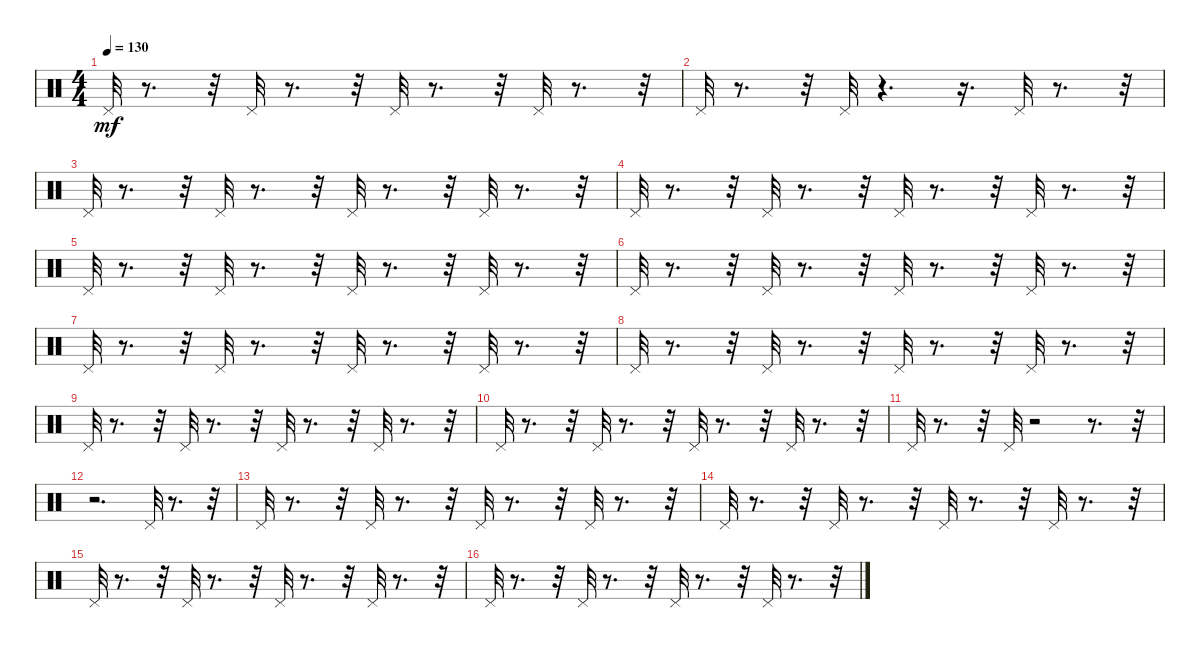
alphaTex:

\track "" {instrument percussion}
\staff {score}
\articulation defaults
\ts (4 4)
\tempo 130
\clef neutral
\ks c "Pedal Hi-Hat (hit)".32{dy mf}
r.8{d} r.32 "Pedal Hi-Hat (hit)".32 r.8{d} r.32 "Pedal Hi-Hat (hit)".32 r.8{d} r.32 "Pedal Hi-Hat (hit)".32 r.8{d} r.32 |
"Pedal Hi-Hat (hit)".32 r.8{d} r.32 "Pedal Hi-Hat (hit)".32 r.4{d} r.16{d} "Pedal Hi-Hat (hit)".32 r.8{d} r.32 |
"Pedal Hi-Hat (hit)".32 r.8{d} r.32 "Pedal Hi-Hat (hit)".32 r.8{d} r.32 "Pedal Hi-Hat (hit)".32 r.8{d} r.32 "Pedal Hi-Hat (hit)".32 r.8{d} r.32 |
"Pedal Hi-Hat (hit)".32 r.8{d} r.32 "Pedal Hi-Hat (hit)".32 r.8{d} r.32 "Pedal Hi-Hat (hit)".32 r.8{d} r.32 "Pedal Hi-Hat (hit)".32 r.8{d} r.32 |
"Pedal Hi-Hat (hit)".32 r.8{d} r.32 "Pedal Hi-Hat (hit)".32 r.8{d} r.32 "Pedal Hi-Hat (hit)".32 r.8{d} r.32 "Pedal Hi-Hat (hit)".32 r.8{d} r.32 |
"Pedal Hi-Hat (hit)".32 r.8{d} r.32 "Pedal Hi-Hat (hit)".32 r.8{d} r.32 "Pedal Hi-Hat (hit)".32 r.8{d} r.32 "Pedal Hi-Hat (hit)".32 r.8{d} r.32 |
"Pedal Hi-Hat (hit)".32 r.8{d} r.32 "Pedal Hi-Hat (hit)".32 r.8{d} r.32 "Pedal Hi-Hat (hit)".32 r.8{d} r.32 "Pedal Hi-Hat (hit)".32 r.8{d} r.32 |
"Pedal Hi-Hat (hit)".32 r.8{d} r.32 "Pedal Hi-Hat (hit)".32 r.8{d} r.32 "Pedal Hi-Hat (hit)".32 r.8{d} r.32 "Pedal Hi-Hat (hit)".32 r.8{d} r.32 |
"Pedal Hi-Hat (hit)".32 r.8{d} r.32 "Pedal Hi-Hat (hit)".32 r.8{d} r.32 "Pedal Hi-Hat (hit)".32 r.8{d} r.32 "Pedal Hi-Hat (hit)".32 r.8{d} r.32 |
"Pedal Hi-Hat (hit)".32 r.8{d} r.32 "Pedal Hi-Hat (hit)".32 r.8{d} r.32 "Pedal Hi-Hat (hit)".32 r.8{d} r.32 "Pedal Hi-Hat (hit)".32 r.8{d} r.32 |
"Pedal Hi-Hat (hit)".32 r.8{d} r.32 "Pedal Hi-Hat (hit)".32 r.2 r.8{d} r.32 |
r.2{d} "Pedal Hi-Hat (hit)".32 r.8{d} r.32 |
"Pedal Hi-Hat (hit)".32 r.8{d} r.32 "Pedal Hi-Hat (hit)".32 r.8{d} r.32 "Pedal Hi-Hat (hit)".32 r.8{d} r.32 "Pedal Hi-Hat (hit)".32 r.8{d} r.32 |
"Pedal Hi-Hat (hit)".32 r.8{d} r.32 "Pedal Hi-Hat (hit)".32 r.8{d} r.32 "Pedal Hi-Hat (hit)".32 r.8{d} r.32 "Pedal Hi-Hat (hit)".32 r.8{d} r.32 |
"Pedal Hi-Hat (hit)".32 r.8{d} r.32 "Pedal Hi-Hat (hit)".32 r.8{d} r.32 "Pedal Hi-Hat (hit)".32 r.8{d} r.32 "Pedal Hi-Hat (hit)".32 r.8{d} r.32 |
"Pedal Hi-Hat (hit)".32 r.8{d} r.32 "Pedal Hi-Hat (hit)".32 r.8{d} r.32 "Pedal Hi-Hat (hit)".32 r.8{d} r.32 "Pedal Hi-Hat (hit)".32 r.8{d} r.32
